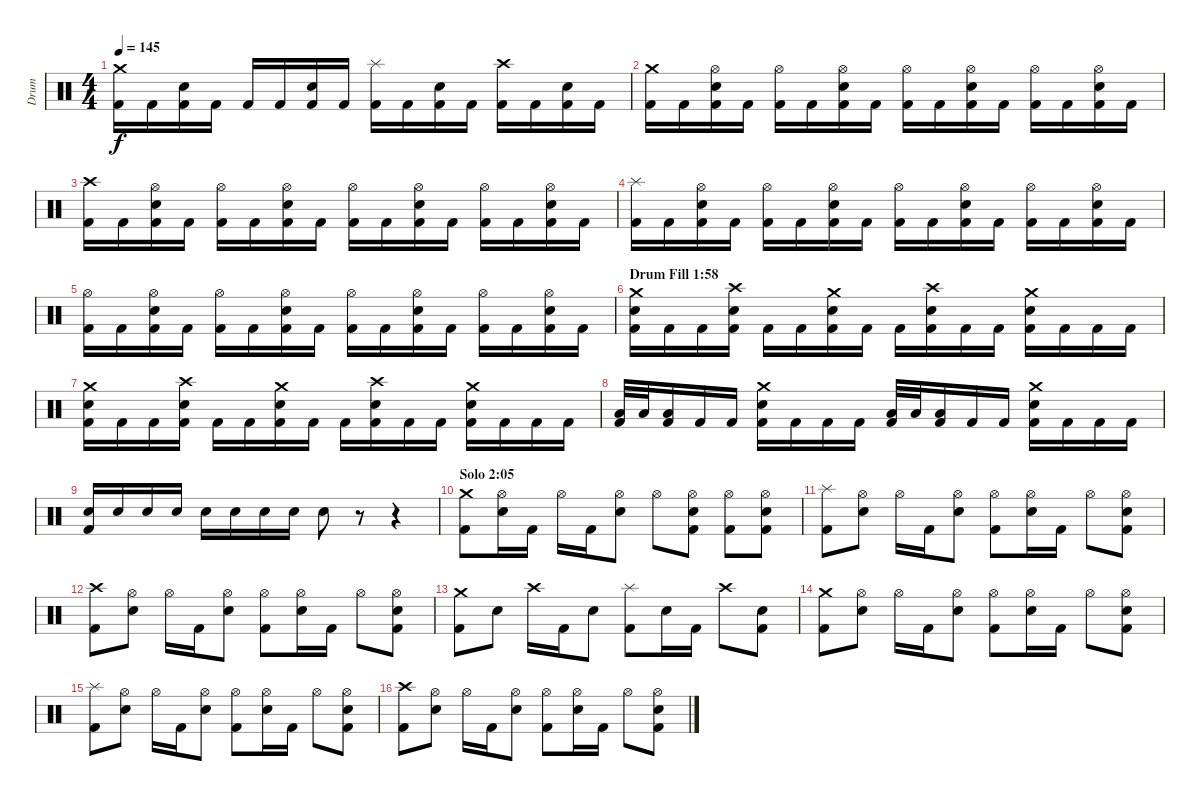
\track ("Drum" "Drum") {instrument percussion}
\staff {score}
\articulation defaults
\ts (4 4)
\tempo 145
\clef neutral
\ks c
("Crash medium (hit)" "Kick (hit) 2").16{dy f} "Kick (hit) 2".16 ("Snare (hit) 2" "Kick (hit) 2").16 "Kick (hit) 2".16 "Kick (hit) 2".16 "Kick (hit) 2".16 ("Snare (hit) 2" "Kick (hit) 2").16 "Kick (hit) 2".16 ("Splash (hit)" "Kick (hit) 2").16 "Kick (hit) 2".16 ("Snare (hit) 2" "Kick (hit) 2").16 "Kick (hit) 2".16 ("Crash high (hit)" "Kick (hit) 2").16 "Kick (hit) 2".16 ("Snare (hit) 2" "Kick (hit) 2").16 "Kick (hit) 2".16 |
("Crash medium (hit)" "Kick (hit) 2").16 "Kick (hit) 2".16 ("Hi-Hat (open)" "Snare (hit) 2" "Kick (hit) 2").16 "Kick (hit) 2".16 ("Hi-Hat (open)" "Kick (hit) 2").16 "Kick (hit) 2".16 ("Hi-Hat (open)" "Snare (hit) 2" "Kick (hit) 2").16 "Kick (hit) 2".16 ("Hi-Hat (open)" "Kick (hit) 2").16 "Kick (hit) 2".16 ("Hi-Hat (open)" "Snare (hit) 2" "Kick (hit) 2").16 "Kick (hit) 2".16 ("Hi-Hat (open)" "Kick (hit) 2").16 "Kick (hit) 2".16 ("Hi-Hat (open)" "Snare (hit) 2" "Kick (hit) 2").16 "Kick (hit) 2".16 |
("Crash high (hit)" "Kick (hit) 2").16 "Kick (hit) 2".16 ("Hi-Hat (open)" "Snare (hit) 2" "Kick (hit) 2").16 "Kick (hit) 2".16 ("Hi-Hat (open)" "Kick (hit) 2").16 "Kick (hit) 2".16 ("Hi-Hat (open)" "Snare (hit) 2" "Kick (hit) 2").16 "Kick (hit) 2".16 ("Hi-Hat (open)" "Kick (hit) 2").16 "Kick (hit) 2".16 ("Hi-Hat (open)" "Snare (hit) 2" "Kick (hit) 2").16 "Kick (hit) 2".16 ("Hi-Hat (open)" "Kick (hit) 2").16 "Kick (hit) 2".16 ("Hi-Hat (open)" "Snare (hit) 2" "Kick (hit) 2").16 "Kick (hit) 2".16 |
("Splash (hit)" "Kick (hit) 2").16 "Kick (hit) 2".16 ("Hi-Hat (open)" "Snare (hit) 2" "Kick (hit) 2").16 "Kick (hit) 2".16 ("Hi-Hat (open)" "Kick (hit) 2").16 "Kick (hit) 2".16 ("Hi-Hat (open)" "Snare (hit) 2" "Kick (hit) 2").16 "Kick (hit) 2".16 ("Hi-Hat (open)" "Kick (hit) 2").16 "Kick (hit) 2".16 ("Hi-Hat (open)" "Snare (hit) 2" "Kick (hit) 2").16 "Kick (hit) 2".16 ("Hi-Hat (open)" "Kick (hit) 2").16 "Kick (hit) 2".16 ("Hi-Hat (open)" "Snare (hit) 2" "Kick (hit) 2").16 "Kick (hit) 2".16 |
("Hi-Hat (open)" "Kick (hit) 2").16 "Kick (hit) 2".16 ("Hi-Hat (open)" "Snare (hit) 2" "Kick (hit) 2").16 "Kick (hit) 2".16 ("Hi-Hat (open)" "Kick (hit) 2").16 "Kick (hit) 2".16 ("Hi-Hat (open)" "Snare (hit) 2" "Kick (hit) 2").16 "Kick (hit) 2".16 ("Hi-Hat (open)" "Kick (hit) 2").16 "Kick (hit) 2".16 ("Hi-Hat (open)" "Snare (hit) 2" "Kick (hit) 2").16 "Kick (hit) 2".16 ("Hi-Hat (open)" "Kick (hit) 2").16 "Kick (hit) 2".16 ("Hi-Hat (open)" "Snare (hit) 2" "Kick (hit) 2").16 "Kick (hit) 2".16 |
\section ("" "Drum Fill 1:58")
("Crash medium (hit)" "Snare (hit) 2" "Kick (hit) 2").16 "Kick (hit) 2".16 "Kick (hit) 2".16 ("Crash high (hit)" "Snare (hit) 2" "Kick (hit) 2").16 "Kick (hit) 2".16 "Kick (hit) 2".16 ("Crash medium (hit)" "Snare (hit) 2" "Kick (hit) 2").16 "Kick (hit) 2".16 "Kick (hit) 2".16 ("Crash high (hit)" "Snare (hit) 2" "Kick (hit) 2").16 "Kick (hit) 2".16 "Kick (hit) 2".16 ("Crash medium (hit)" "Snare (hit) 2" "Kick (hit) 2").16 "Kick (hit) 2".16 "Kick (hit) 2".16 "Kick (hit) 2".16 |
("Crash medium (hit)" "Snare (hit) 2" "Kick (hit) 2").16 "Kick (hit) 2".16 "Kick (hit) 2".16 ("Crash high (hit)" "Snare (hit) 2" "Kick (hit) 2").16 "Kick (hit) 2".16 "Kick (hit) 2".16 ("Crash medium (hit)" "Snare (hit) 2" "Kick (hit) 2").16 "Kick (hit) 2".16 "Kick (hit) 2".16 ("Crash high (hit)" "Snare (hit) 2" "Kick (hit) 2").16 "Kick (hit) 2".16 "Kick (hit) 2".16 ("Crash medium (hit)" "Snare (hit) 2" "Kick (hit) 2").16 "Kick (hit) 2".16 "Kick (hit) 2".16 "Kick (hit) 2".16 |
("Low Floor Tom (hit)" "Kick (hit) 2").32 "Low Floor Tom (hit)".32 ("Low Floor Tom (hit)" "Kick (hit) 2").16 "Kick (hit) 2".16 "Kick (hit) 2".16 ("Crash medium (hit)" "Snare (hit) 2" "Kick (hit) 2").16 "Kick (hit) 2".16 "Kick (hit) 2".16 "Kick (hit) 2".16 ("Low Floor Tom (hit)" "Kick (hit) 2").32 "Low Floor Tom (hit)".32 ("Low Floor Tom (hit)" "Kick (hit) 2").16 "Kick (hit) 2".16 "Kick (hit) 2".16 ("Crash medium (hit)" "Snare (hit) 2" "Kick (hit) 2").16 "Kick (hit) 2".16 "Kick (hit) 2".16 "Kick (hit) 2".16 |
("Snare (hit) 2" "Kick (hit) 2").16 "Snare (hit) 2".16 "Snare (hit) 2".16 "Snare (hit) 2".16 "Snare (hit) 2".16 "Snare (hit) 2".16 "Snare (hit) 2".16 "Snare (hit) 2".16 "Snare (hit) 2".8 r.8 r.4 |
\section ("" "Solo 2:05")
("Crash medium (hit)" "Kick (hit) 2").8 ("Hi-Hat (open)" "Snare (hit) 2").16 "Kick (hit) 2".16 "Hi-Hat (open)".16 "Kick (hit) 2".16 ("Hi-Hat (open)" "Snare (hit) 2").8 "Hi-Hat (open)".8 ("Hi-Hat (open)" "Snare (hit) 2" "Kick (hit) 2").8 ("Hi-Hat (open)" "Kick (hit) 2").8 ("Hi-Hat (open)" "Snare (hit) 2" "Kick (hit) 2").8 |
("Splash (hit)" "Kick (hit) 2").8 ("Hi-Hat (open)" "Snare (hit) 2").8 "Hi-Hat (open)".16 "Kick (hit) 2".16 ("Hi-Hat (open)" "Snare (hit) 2").8 ("Hi-Hat (open)" "Kick (hit) 2").8 ("Hi-Hat (open)" "Snare (hit) 2").16 "Kick (hit) 2".16 "Hi-Hat (open)".8 ("Hi-Hat (open)" "Snare (hit) 2" "Kick (hit) 2").8 |
("Crash high (hit)" "Kick (hit) 2").8 ("Hi-Hat (open)" "Snare (hit) 2").8 "Hi-Hat (open)".16 "Kick (hit) 2".16 ("Hi-Hat (open)" "Snare (hit) 2").8 ("Hi-Hat (open)" "Kick (hit) 2").8 ("Hi-Hat (open)" "Snare (hit) 2").16 "Kick (hit) 2".16 "Hi-Hat (open)".8 ("Hi-Hat (open)" "Snare (hit) 2" "Kick (hit) 2").8 |
("Crash medium (hit)" "Kick (hit) 2").8 "Snare (hit) 2".8 "Crash high (hit)".16 "Kick (hit) 2".16 "Snare (hit) 2".8 ("Splash (hit)" "Kick (hit) 2").8 "Snare (hit) 2".16 "Kick (hit) 2".16 "Crash high (hit)".8 ("Snare (hit) 2" "Kick (hit) 2").8 |
("Crash medium (hit)" "Kick (hit) 2").8 ("Hi-Hat (open)" "Snare (hit) 2").8 "Hi-Hat (open)".16 "Kick (hit) 2".16 ("Hi-Hat (open)" "Snare (hit) 2").8 ("Hi-Hat (open)" "Kick (hit) 2").8 ("Hi-Hat (open)" "Snare (hit) 2").16 "Kick (hit) 2".16 "Hi-Hat (open)".8 ("Hi-Hat (open)" "Snare (hit) 2" "Kick (hit) 2").8 |
("Splash (hit)" "Kick (hit) 2").8 ("Hi-Hat (open)" "Snare (hit) 2").8 "Hi-Hat (open)".16 "Kick (hit) 2".16 ("Hi-Hat (open)" "Snare (hit) 2").8 ("Hi-Hat (open)" "Kick (hit) 2").8 ("Hi-Hat (open)" "Snare (hit) 2").16 "Kick (hit) 2".16 "Hi-Hat (open)".8 ("Hi-Hat (open)" "Snare (hit) 2" "Kick (hit) 2").8 |
("Crash high (hit)" "Kick (hit) 2").8 ("Hi-Hat (open)" "Snare (hit) 2").8 "Hi-Hat (open)".16 "Kick (hit) 2".16 ("Hi-Hat (open)" "Snare (hit) 2").8 ("Hi-Hat (open)" "Kick (hit) 2").8 ("Hi-Hat (open)" "Snare (hit) 2").16 "Kick (hit) 2".16 "Hi-Hat (open)".8 ("Hi-Hat (open)" "Snare (hit) 2" "Kick (hit) 2").8
